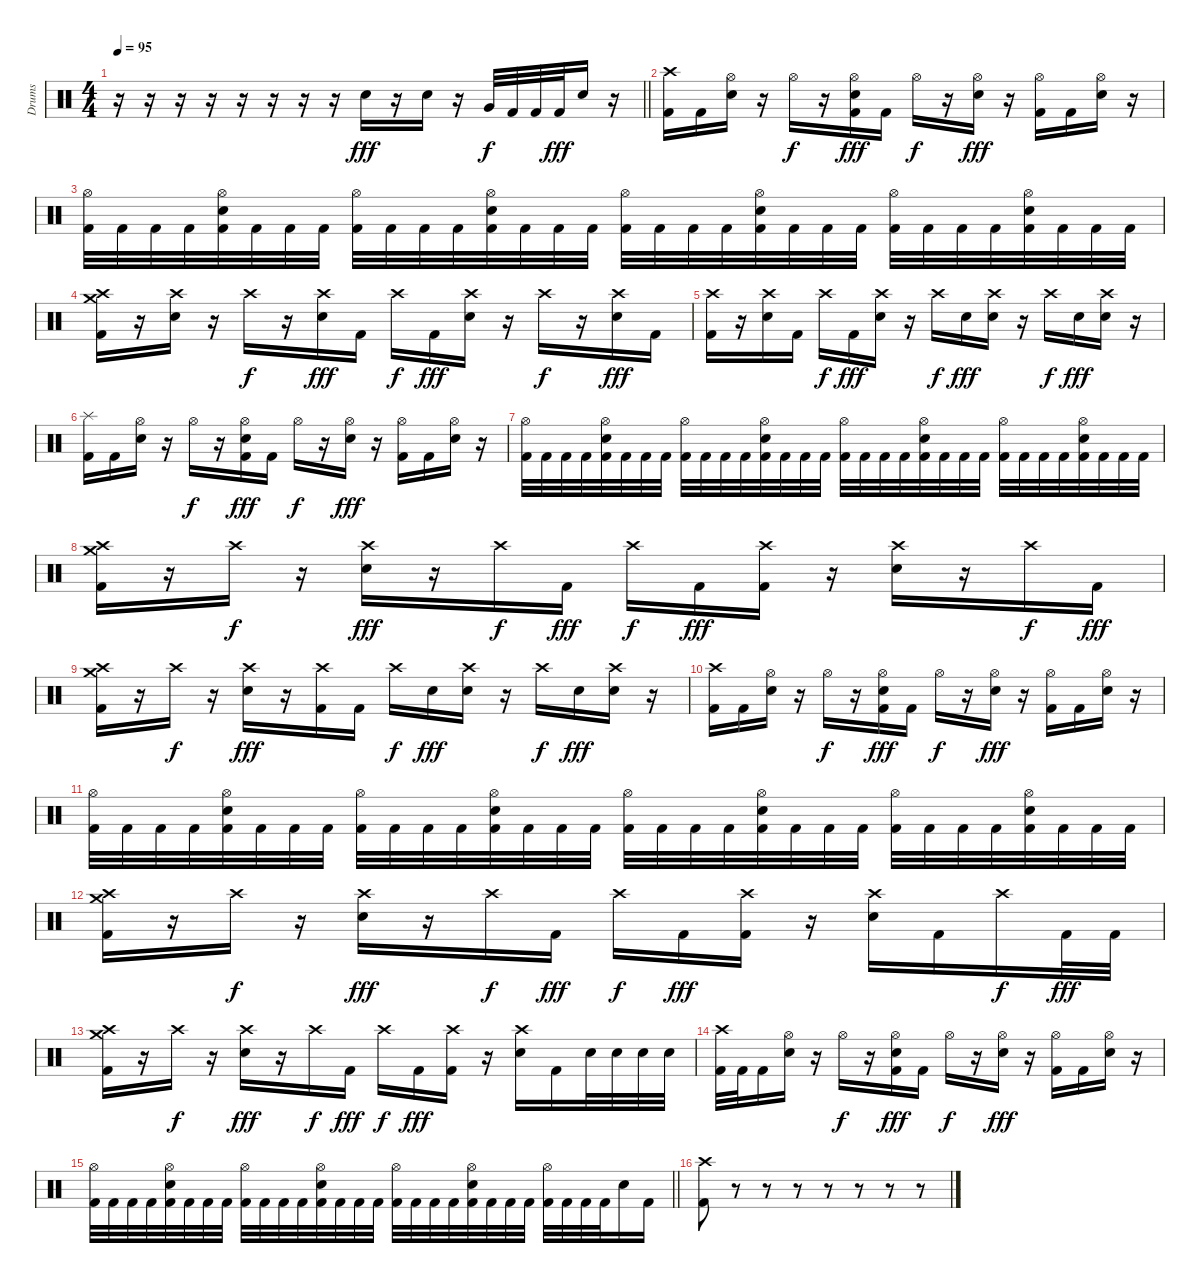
\track ("Drums" "Drums") {instrument percussion}
\staff {score}
\articulation defaults
\ts (4 4)
\tempo 95
\clef neutral
\barLineRight lightlight
\ks c
r.16{dy fff} r.16 r.16 r.16 r.16 r.16 r.16 r.16 "Electric Snare (hit)".16 r.16 "Electric Snare (hit)".16 r.16 "Very Low Tom (hit)".32{dy f} "Kick (hit) 2".32 "Kick (hit) 2".32 "Kick (hit) 2".32{dy fff} "Electric Snare (hit)".16 r.16 |
\section ("" "")
("Crash high (hit)" "Kick (hit) 2").16 "Kick (hit) 2".16 ("Hi-Hat (open)" "Electric Snare (hit)").16 r.16 "Hi-Hat (open)".16{dy f} r.16 ("Hi-Hat (open)" "Electric Snare (hit)" "Kick (hit) 2").16{dy fff} "Kick (hit) 2".16 "Hi-Hat (open)".16{dy f} r.16 ("Hi-Hat (open)" "Electric Snare (hit)").16{dy fff} r.16 ("Hi-Hat (open)" "Kick (hit) 2").16 "Kick (hit) 2".16 ("Hi-Hat (open)" "Electric Snare (hit)").16 r.16 |
("Hi-Hat (open)" "Kick (hit) 2").32 "Kick (hit) 2".32 "Kick (hit) 2".32 "Kick (hit) 2".32 ("Hi-Hat (open)" "Electric Snare (hit)" "Kick (hit) 2").32 "Kick (hit) 2".32 "Kick (hit) 2".32 "Kick (hit) 2".32 ("Hi-Hat (open)" "Kick (hit) 2").32 "Kick (hit) 2".32 "Kick (hit) 2".32 "Kick (hit) 2".32 ("Hi-Hat (open)" "Electric Snare (hit)" "Kick (hit) 2").32 "Kick (hit) 2".32 "Kick (hit) 2".32 "Kick (hit) 2".32 ("Hi-Hat (open)" "Kick (hit) 2").32 "Kick (hit) 2".32 "Kick (hit) 2".32 "Kick (hit) 2".32 ("Hi-Hat (open)" "Electric Snare (hit)" "Kick (hit) 2").32 "Kick (hit) 2".32 "Kick (hit) 2".32 "Kick (hit) 2".32 ("Hi-Hat (open)" "Kick (hit) 2").32 "Kick (hit) 2".32 "Kick (hit) 2".32 "Kick (hit) 2".32 ("Hi-Hat (open)" "Electric Snare (hit)" "Kick (hit) 2").32 "Kick (hit) 2".32 "Kick (hit) 2".32 "Kick (hit) 2".32 |
("Crash high (hit)" "Crash medium (hit)" "Kick (hit) 2").16 r.16 ("Crash high (hit)" "Electric Snare (hit)").16 r.16 "Crash high (hit)".16{dy f} r.16 ("Crash high (hit)" "Electric Snare (hit)").16{dy fff} "Kick (hit) 2".16 "Crash high (hit)".16{dy f} "Kick (hit) 2".16{dy fff} ("Crash high (hit)" "Electric Snare (hit)").16 r.16 "Crash high (hit)".16{dy f} r.16 ("Crash high (hit)" "Electric Snare (hit)").16{dy fff} "Kick (hit) 2".16 |
("Crash high (hit)" "Kick (hit) 2").16 r.16 ("Crash high (hit)" "Electric Snare (hit)").16 "Kick (hit) 2".16 "Crash high (hit)".16{dy f} "Kick (hit) 2".16{dy fff} ("Crash high (hit)" "Electric Snare (hit)").16 r.16 "Crash high (hit)".16{dy f} "Electric Snare (hit)".16{dy fff} ("Crash high (hit)" "Electric Snare (hit)").16 r.16 "Crash high (hit)".16{dy f} "Electric Snare (hit)".16{dy fff} ("Crash high (hit)" "Electric Snare (hit)").16 r.16 |
("Splash (hit)" "Kick (hit) 2").16 "Kick (hit) 2".16 ("Hi-Hat (open)" "Electric Snare (hit)").16 r.16 "Hi-Hat (open)".16{dy f} r.16 ("Hi-Hat (open)" "Electric Snare (hit)" "Kick (hit) 2").16{dy fff} "Kick (hit) 2".16 "Hi-Hat (open)".16{dy f} r.16 ("Hi-Hat (open)" "Electric Snare (hit)").16{dy fff} r.16 ("Hi-Hat (open)" "Kick (hit) 2").16 "Kick (hit) 2".16 ("Hi-Hat (open)" "Electric Snare (hit)").16 r.16 |
("Hi-Hat (open)" "Kick (hit) 2").32 "Kick (hit) 2".32 "Kick (hit) 2".32 "Kick (hit) 2".32 ("Hi-Hat (open)" "Electric Snare (hit)" "Kick (hit) 2").32 "Kick (hit) 2".32 "Kick (hit) 2".32 "Kick (hit) 2".32 ("Hi-Hat (open)" "Kick (hit) 2").32 "Kick (hit) 2".32 "Kick (hit) 2".32 "Kick (hit) 2".32 ("Hi-Hat (open)" "Electric Snare (hit)" "Kick (hit) 2").32 "Kick (hit) 2".32 "Kick (hit) 2".32 "Kick (hit) 2".32 ("Hi-Hat (open)" "Kick (hit) 2").32 "Kick (hit) 2".32 "Kick (hit) 2".32 "Kick (hit) 2".32 ("Hi-Hat (open)" "Electric Snare (hit)" "Kick (hit) 2").32 "Kick (hit) 2".32 "Kick (hit) 2".32 "Kick (hit) 2".32 ("Hi-Hat (open)" "Kick (hit) 2").32 "Kick (hit) 2".32 "Kick (hit) 2".32 "Kick (hit) 2".32 ("Hi-Hat (open)" "Electric Snare (hit)" "Kick (hit) 2").32 "Kick (hit) 2".32 "Kick (hit) 2".32 "Kick (hit) 2".32 |
("Crash high (hit)" "Crash medium (hit)" "Kick (hit) 2").16 r.16 "Crash high (hit)".16{dy f} r.16 ("Crash high (hit)" "Electric Snare (hit)").16{dy fff} r.16 "Crash high (hit)".16{dy f} "Kick (hit) 2".16{dy fff} "Crash high (hit)".16{dy f} "Kick (hit) 2".16{dy fff} ("Crash high (hit)" "Kick (hit) 2").16 r.16 ("Crash high (hit)" "Electric Snare (hit)").16 r.16 "Crash high (hit)".16{dy f} "Kick (hit) 2".16{dy fff} |
("Crash high (hit)" "Crash medium (hit)" "Kick (hit) 2").16 r.16 "Crash high (hit)".16{dy f} r.16 ("Crash high (hit)" "Electric Snare (hit)").16{dy fff} r.16 ("Crash high (hit)" "Kick (hit) 2").16 "Kick (hit) 2".16 "Crash high (hit)".16{dy f} "Electric Snare (hit)".16{dy fff} ("Crash high (hit)" "Electric Snare (hit)").16 r.16 "Crash high (hit)".16{dy f} "Electric Snare (hit)".16{dy fff} ("Crash high (hit)" "Electric Snare (hit)").16 r.16 |
("Crash high (hit)" "Kick (hit) 2").16 "Kick (hit) 2".16 ("Hi-Hat (open)" "Electric Snare (hit)").16 r.16 "Hi-Hat (open)".16{dy f} r.16 ("Hi-Hat (open)" "Electric Snare (hit)" "Kick (hit) 2").16{dy fff} "Kick (hit) 2".16 "Hi-Hat (open)".16{dy f} r.16 ("Hi-Hat (open)" "Electric Snare (hit)").16{dy fff} r.16 ("Hi-Hat (open)" "Kick (hit) 2").16 "Kick (hit) 2".16 ("Hi-Hat (open)" "Electric Snare (hit)").16 r.16 |
("Hi-Hat (open)" "Kick (hit) 2").32 "Kick (hit) 2".32 "Kick (hit) 2".32 "Kick (hit) 2".32 ("Hi-Hat (open)" "Electric Snare (hit)" "Kick (hit) 2").32 "Kick (hit) 2".32 "Kick (hit) 2".32 "Kick (hit) 2".32 ("Hi-Hat (open)" "Kick (hit) 2").32 "Kick (hit) 2".32 "Kick (hit) 2".32 "Kick (hit) 2".32 ("Hi-Hat (open)" "Electric Snare (hit)" "Kick (hit) 2").32 "Kick (hit) 2".32 "Kick (hit) 2".32 "Kick (hit) 2".32 ("Hi-Hat (open)" "Kick (hit) 2").32 "Kick (hit) 2".32 "Kick (hit) 2".32 "Kick (hit) 2".32 ("Hi-Hat (open)" "Electric Snare (hit)" "Kick (hit) 2").32 "Kick (hit) 2".32 "Kick (hit) 2".32 "Kick (hit) 2".32 ("Hi-Hat (open)" "Kick (hit) 2").32 "Kick (hit) 2".32 "Kick (hit) 2".32 "Kick (hit) 2".32 ("Hi-Hat (open)" "Electric Snare (hit)" "Kick (hit) 2").32 "Kick (hit) 2".32 "Kick (hit) 2".32 "Kick (hit) 2".32 |
("Crash high (hit)" "Crash medium (hit)" "Kick (hit) 2").16 r.16 "Crash high (hit)".16{dy f} r.16 ("Crash high (hit)" "Electric Snare (hit)").16{dy fff} r.16 "Crash high (hit)".16{dy f} "Kick (hit) 2".16{dy fff} "Crash high (hit)".16{dy f} "Kick (hit) 2".16{dy fff} ("Crash high (hit)" "Kick (hit) 2").16 r.16 ("Crash high (hit)" "Electric Snare (hit)").16 "Kick (hit) 2".16 "Crash high (hit)".16{dy f} "Kick (hit) 2".32{dy fff} "Kick (hit) 2".32 |
("Crash high (hit)" "Crash medium (hit)" "Kick (hit) 2").16 r.16 "Crash high (hit)".16{dy f} r.16 ("Crash high (hit)" "Electric Snare (hit)").16{dy fff} r.16 "Crash high (hit)".16{dy f} "Kick (hit) 2".16{dy fff} "Crash high (hit)".16{dy f} "Kick (hit) 2".16{dy fff} ("Crash high (hit)" "Kick (hit) 2").16 r.16 ("Crash high (hit)" "Electric Snare (hit)").16 "Kick (hit) 2".16 "Electric Snare (hit)".32 "Electric Snare (hit)".32 "Electric Snare (hit)".32 "Electric Snare (hit)".32 |
("Crash high (hit)" "Kick (hit) 2").32 "Kick (hit) 2".32 "Kick (hit) 2".16 ("Hi-Hat (open)" "Electric Snare (hit)").16 r.16 "Hi-Hat (open)".16{dy f} r.16 ("Hi-Hat (open)" "Electric Snare (hit)" "Kick (hit) 2").16{dy fff} "Kick (hit) 2".16 "Hi-Hat (open)".16{dy f} r.16 ("Hi-Hat (open)" "Electric Snare (hit)").16{dy fff} r.16 ("Hi-Hat (open)" "Kick (hit) 2").16 "Kick (hit) 2".16 ("Hi-Hat (open)" "Electric Snare (hit)").16 r.16 |
\barLineRight lightlight
("Hi-Hat (open)" "Kick (hit) 2").32 "Kick (hit) 2".32 "Kick (hit) 2".32 "Kick (hit) 2".32 ("Hi-Hat (open)" "Electric Snare (hit)" "Kick (hit) 2").32 "Kick (hit) 2".32 "Kick (hit) 2".32 "Kick (hit) 2".32 ("Hi-Hat (open)" "Kick (hit) 2").32 "Kick (hit) 2".32 "Kick (hit) 2".32 "Kick (hit) 2".32 ("Hi-Hat (open)" "Electric Snare (hit)" "Kick (hit) 2").32 "Kick (hit) 2".32 "Kick (hit) 2".32 "Kick (hit) 2".32 ("Hi-Hat (open)" "Kick (hit) 2").32 "Kick (hit) 2".32 "Kick (hit) 2".32 "Kick (hit) 2".32 ("Hi-Hat (open)" "Electric Snare (hit)" "Kick (hit) 2").32 "Kick (hit) 2".32 "Kick (hit) 2".32 "Kick (hit) 2".32 ("Hi-Hat (open)" "Kick (hit) 2").32 "Kick (hit) 2".32 "Kick (hit) 2".32 "Kick (hit) 2".32 "Electric Snare (hit)".16 "Kick (hit) 2".16 |
\section ("" "")
("Crash high (hit)" "Kick (hit) 2").8 r.8{volume 0} r.8 r.8 r.8 r.8 r.8 r.8
